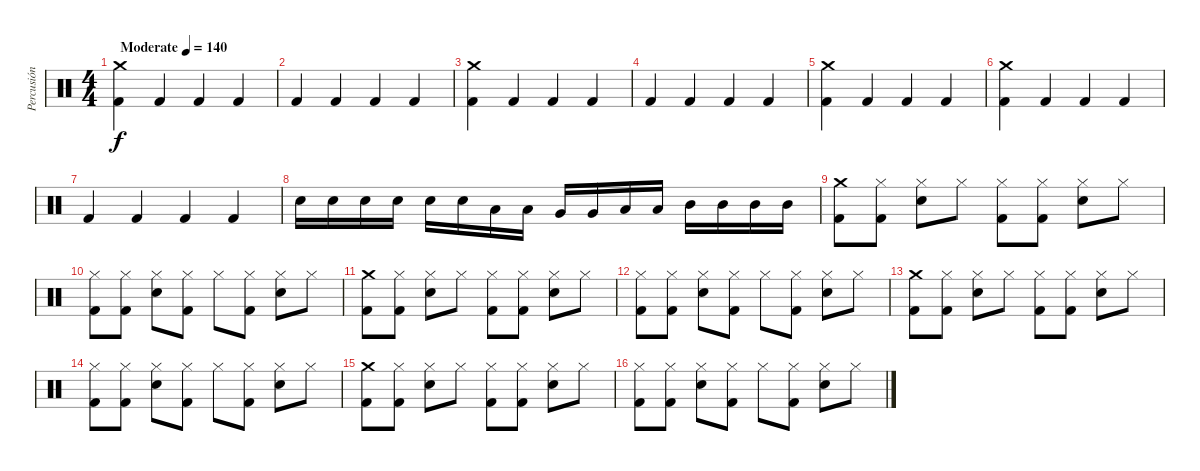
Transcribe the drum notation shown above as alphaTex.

\track ("Percusión" "Percusión") {instrument percussion}
\staff {score}
\articulation defaults
\ts (4 4)
\tempo (140 "Moderate")
\clef neutral
\ks c
("Kick (hit) 2" "Crash medium (hit)").4{dy f} "Kick (hit) 2".4 "Kick (hit) 2".4 "Kick (hit) 2".4 |
"Kick (hit) 2".4 "Kick (hit) 2".4 "Kick (hit) 2".4 "Kick (hit) 2".4 |
("Kick (hit) 2" "Crash medium (hit)").4 "Kick (hit) 2".4 "Kick (hit) 2".4 "Kick (hit) 2".4 |
"Kick (hit) 2".4 "Kick (hit) 2".4 "Kick (hit) 2".4 "Kick (hit) 2".4 |
("Kick (hit) 2" "Crash medium (hit)").4 "Kick (hit) 2".4 "Kick (hit) 2".4 "Kick (hit) 2".4 |
("Kick (hit) 2" "Crash medium (hit)").4 "Kick (hit) 2".4 "Kick (hit) 2".4 "Kick (hit) 2".4 |
"Kick (hit) 2".4 "Kick (hit) 2".4 "Kick (hit) 2".4 "Kick (hit) 2".4 |
"Electric Snare (hit)".16 "Electric Snare (hit)".16 "Electric Snare (hit)".16 "Electric Snare (hit)".16 "Electric Snare (hit)".16 "Electric Snare (hit)".16 "Low Floor Tom (hit)".16 "Low Floor Tom (hit)".16 "Very Low Tom (hit)".16 "Very Low Tom (hit)".16 "Low Tom (hit)".16 "Low Tom (hit)".16 "Mid Tom (hit)".16 "Mid Tom (hit)".16 "Mid Tom (hit)".16 "Mid Tom (hit)".16 |
("Crash medium (hit)" "Kick (hit) 2").8 ("Hi-Hat (closed)" "Kick (hit) 2").8 ("Hi-Hat (closed)" "Electric Snare (hit)").8 "Hi-Hat (closed)".8 ("Hi-Hat (closed)" "Kick (hit) 2").8 ("Hi-Hat (closed)" "Kick (hit) 2").8 ("Hi-Hat (closed)" "Electric Snare (hit)").8 "Hi-Hat (closed)".8 |
("Hi-Hat (closed)" "Kick (hit) 2").8 ("Hi-Hat (closed)" "Kick (hit) 2").8 ("Hi-Hat (closed)" "Electric Snare (hit)").8 ("Hi-Hat (closed)" "Kick (hit) 2").8 "Hi-Hat (closed)".8 ("Hi-Hat (closed)" "Kick (hit) 2").8 ("Hi-Hat (closed)" "Electric Snare (hit)").8 "Hi-Hat (closed)".8 |
("Crash medium (hit)" "Kick (hit) 2").8 ("Hi-Hat (closed)" "Kick (hit) 2").8 ("Hi-Hat (closed)" "Electric Snare (hit)").8 "Hi-Hat (closed)".8 ("Hi-Hat (closed)" "Kick (hit) 2").8 ("Hi-Hat (closed)" "Kick (hit) 2").8 ("Hi-Hat (closed)" "Electric Snare (hit)").8 "Hi-Hat (closed)".8 |
("Hi-Hat (closed)" "Kick (hit) 2").8 ("Hi-Hat (closed)" "Kick (hit) 2").8 ("Hi-Hat (closed)" "Electric Snare (hit)").8 ("Hi-Hat (closed)" "Kick (hit) 2").8 "Hi-Hat (closed)".8 ("Hi-Hat (closed)" "Kick (hit) 2").8 ("Hi-Hat (closed)" "Electric Snare (hit)").8 "Hi-Hat (closed)".8 |
("Crash medium (hit)" "Kick (hit) 2").8 ("Hi-Hat (closed)" "Kick (hit) 2").8 ("Hi-Hat (closed)" "Electric Snare (hit)").8 "Hi-Hat (closed)".8 ("Hi-Hat (closed)" "Kick (hit) 2").8 ("Hi-Hat (closed)" "Kick (hit) 2").8 ("Hi-Hat (closed)" "Electric Snare (hit)").8 "Hi-Hat (closed)".8 |
("Hi-Hat (closed)" "Kick (hit) 2").8 ("Hi-Hat (closed)" "Kick (hit) 2").8 ("Hi-Hat (closed)" "Electric Snare (hit)").8 ("Hi-Hat (closed)" "Kick (hit) 2").8 "Hi-Hat (closed)".8 ("Hi-Hat (closed)" "Kick (hit) 2").8 ("Hi-Hat (closed)" "Electric Snare (hit)").8 "Hi-Hat (closed)".8 |
("Crash medium (hit)" "Kick (hit) 2").8 ("Hi-Hat (closed)" "Kick (hit) 2").8 ("Hi-Hat (closed)" "Electric Snare (hit)").8 "Hi-Hat (closed)".8 ("Hi-Hat (closed)" "Kick (hit) 2").8 ("Hi-Hat (closed)" "Kick (hit) 2").8 ("Hi-Hat (closed)" "Electric Snare (hit)").8 "Hi-Hat (closed)".8 |
("Hi-Hat (closed)" "Kick (hit) 2").8 ("Hi-Hat (closed)" "Kick (hit) 2").8 ("Hi-Hat (closed)" "Electric Snare (hit)").8 ("Hi-Hat (closed)" "Kick (hit) 2").8 "Hi-Hat (closed)".8 ("Hi-Hat (closed)" "Kick (hit) 2").8 ("Hi-Hat (closed)" "Electric Snare (hit)").8 "Hi-Hat (closed)".8
